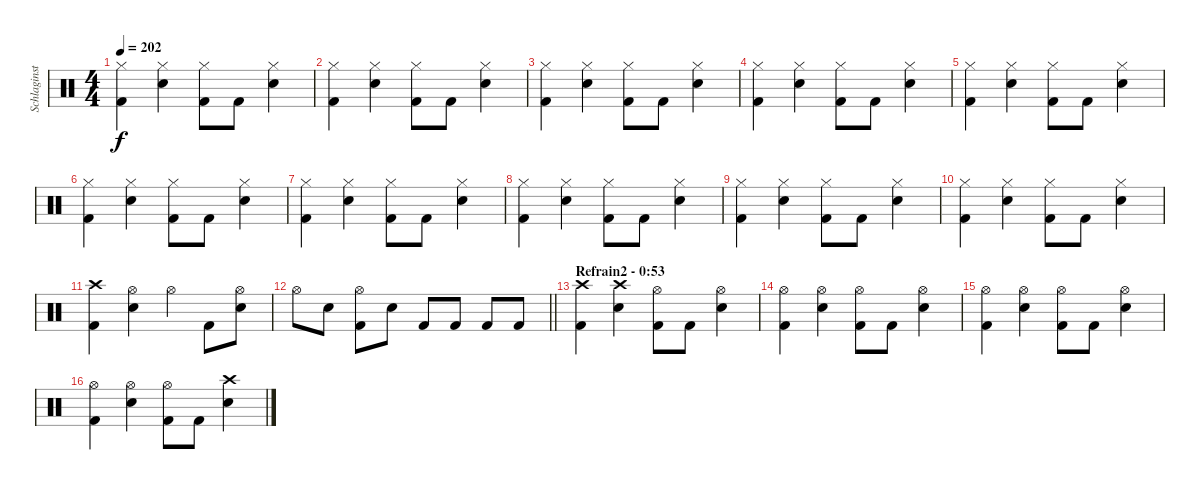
\track ("Schlaginstrumente - Auswahl" "Schlaginst") {instrument percussion bank 1}
\staff {score}
\articulation defaults
\ts (4 4)
\tempo 202
\clef neutral
\ks c
("Hi-Hat (closed)" "Kick (hit) 2").4{dy f} ("Hi-Hat (closed)" "Snare (hit) 2").4 ("Hi-Hat (closed)" "Kick (hit) 2").8 "Kick (hit) 2".8 ("Hi-Hat (closed)" "Snare (hit) 2").4 |
("Hi-Hat (closed)" "Kick (hit) 2").4 ("Hi-Hat (closed)" "Snare (hit) 2").4 ("Hi-Hat (closed)" "Kick (hit) 2").8 "Kick (hit) 2".8 ("Hi-Hat (closed)" "Snare (hit) 2").4 |
("Hi-Hat (closed)" "Kick (hit) 2").4 ("Hi-Hat (closed)" "Snare (hit) 2").4 ("Hi-Hat (closed)" "Kick (hit) 2").8 "Kick (hit) 2".8 ("Hi-Hat (closed)" "Snare (hit) 2").4 |
("Hi-Hat (closed)" "Kick (hit) 2").4 ("Hi-Hat (closed)" "Snare (hit) 2").4 ("Hi-Hat (closed)" "Kick (hit) 2").8 "Kick (hit) 2".8 ("Hi-Hat (closed)" "Snare (hit) 2").4 |
("Hi-Hat (closed)" "Kick (hit) 2").4 ("Hi-Hat (closed)" "Snare (hit) 2").4 ("Hi-Hat (closed)" "Kick (hit) 2").8 "Kick (hit) 2".8 ("Hi-Hat (closed)" "Snare (hit) 2").4 |
("Hi-Hat (closed)" "Kick (hit) 2").4 ("Hi-Hat (closed)" "Snare (hit) 2").4 ("Hi-Hat (closed)" "Kick (hit) 2").8 "Kick (hit) 2".8 ("Hi-Hat (closed)" "Snare (hit) 2").4 |
("Hi-Hat (closed)" "Kick (hit) 2").4 ("Hi-Hat (closed)" "Snare (hit) 2").4 ("Hi-Hat (closed)" "Kick (hit) 2").8 "Kick (hit) 2".8 ("Hi-Hat (closed)" "Snare (hit) 2").4 |
("Hi-Hat (closed)" "Kick (hit) 2").4 ("Hi-Hat (closed)" "Snare (hit) 2").4 ("Hi-Hat (closed)" "Kick (hit) 2").8 "Kick (hit) 2".8 ("Hi-Hat (closed)" "Snare (hit) 2").4 |
("Hi-Hat (closed)" "Kick (hit) 2").4 ("Hi-Hat (closed)" "Snare (hit) 2").4 ("Hi-Hat (closed)" "Kick (hit) 2").8 "Kick (hit) 2".8 ("Hi-Hat (closed)" "Snare (hit) 2").4 |
("Hi-Hat (closed)" "Kick (hit) 2").4 ("Hi-Hat (closed)" "Snare (hit) 2").4 ("Hi-Hat (closed)" "Kick (hit) 2").8 "Kick (hit) 2".8 ("Hi-Hat (closed)" "Snare (hit) 2").4 |
("Crash high (hit)" "Kick (hit) 2").4 ("Hi-Hat (open)" "Snare (hit) 2").4 "Hi-Hat (open)".4 "Kick (hit) 2".8 ("Hi-Hat (open)" "Snare (hit) 2").8 |
\barLineRight lightlight "Hi-Hat (open)".8 "Snare (hit) 2".8
("Hi-Hat (open)" "Kick (hit) 2").8 "Snare (hit) 2".8 "Kick (hit) 2".8 "Kick (hit) 2".8 "Kick (hit) 2".8 "Kick (hit) 2".8 |
\section ("" "Refrain2 - 0:53")
("Crash high (hit)" "Kick (hit) 2").4 ("Crash high (hit)" "Snare (hit) 2").4 ("Hi-Hat (open)" "Kick (hit) 2").8 "Kick (hit) 2".8 ("Hi-Hat (open)" "Snare (hit) 2").4 |
("Hi-Hat (open)" "Kick (hit) 2").4 ("Hi-Hat (open)" "Snare (hit) 2").4 ("Hi-Hat (open)" "Kick (hit) 2").8 "Kick (hit) 2".8 ("Hi-Hat (open)" "Snare (hit) 2").4 |
("Hi-Hat (open)" "Kick (hit) 2").4 ("Hi-Hat (open)" "Snare (hit) 2").4 ("Hi-Hat (open)" "Kick (hit) 2").8 "Kick (hit) 2".8 ("Hi-Hat (open)" "Snare (hit) 2").4 |
("Hi-Hat (open)" "Kick (hit) 2").4 ("Hi-Hat (open)" "Snare (hit) 2").4 ("Hi-Hat (open)" "Kick (hit) 2").8 "Kick (hit) 2".8 ("Crash high (hit)" "Snare (hit) 2").4
